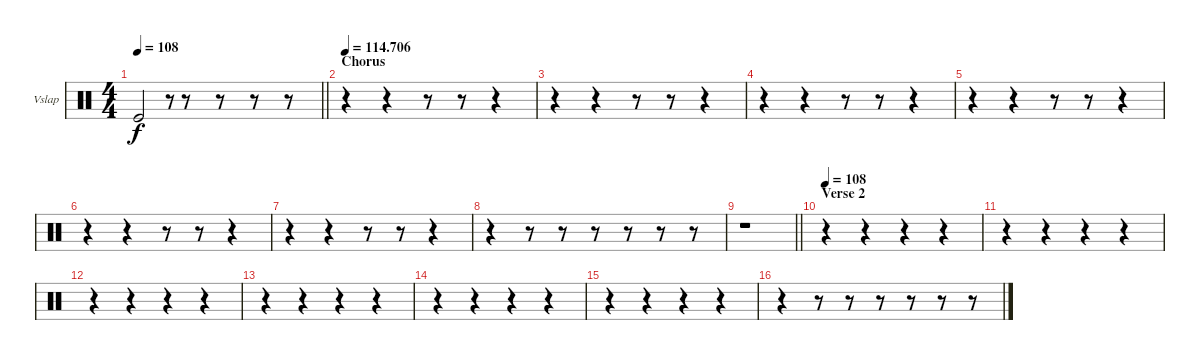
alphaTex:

\bracketExtendMode groupsimilarinstruments
\firstSystemTrackNameOrientation horizontal
\otherSystemsTrackNameOrientation horizontal
\track ("Vibraslap" "Vslap") {instrument percussion}
\staff {score}
\articulation defaults
\ts (4 4)
\tempo 108
\clef neutral
\barLineRight lightlight
\ks c "Kick (hit)".2{dy f}
r.8{gr} r.8 r.8 r.8 r.8 |
\section ("" "Chorus")
\tempo
114.706 r.4 r.4 r.8 r.8 r.4 |
r.4 r.4 r.8 r.8 r.4{tp 2} |
r.4 r.4 r.8 r.8 r.4 |
r.4 r.4 r.8 r.8 r.4{tp 1} |
r.4 r.4 r.8 r.8 r.4 |
r.4 r.4 r.8 r.8 r.4 |
r.4 r.8 r.8{tp 2} r.8 r.8{tp 2} r.8{tp 2} r.8{tp 2} |
\barLineRight lightlight
r.1 |
\section ("" "Verse 2")
\tempo 108
r.4 r.4 r.4 r.4 |
r.4 r.4 r.4 r.4 |
r.4 r.4 r.4 r.4 |
r.4 r.4 r.4 r.4 |
r.4 r.4 r.4 r.4 |
r.4 r.4 r.4 r.4 |
r.4 r.8 r.8{tp 2} r.8 r.8{tp 2} r.8{tp 2} r.8{tp 2}
